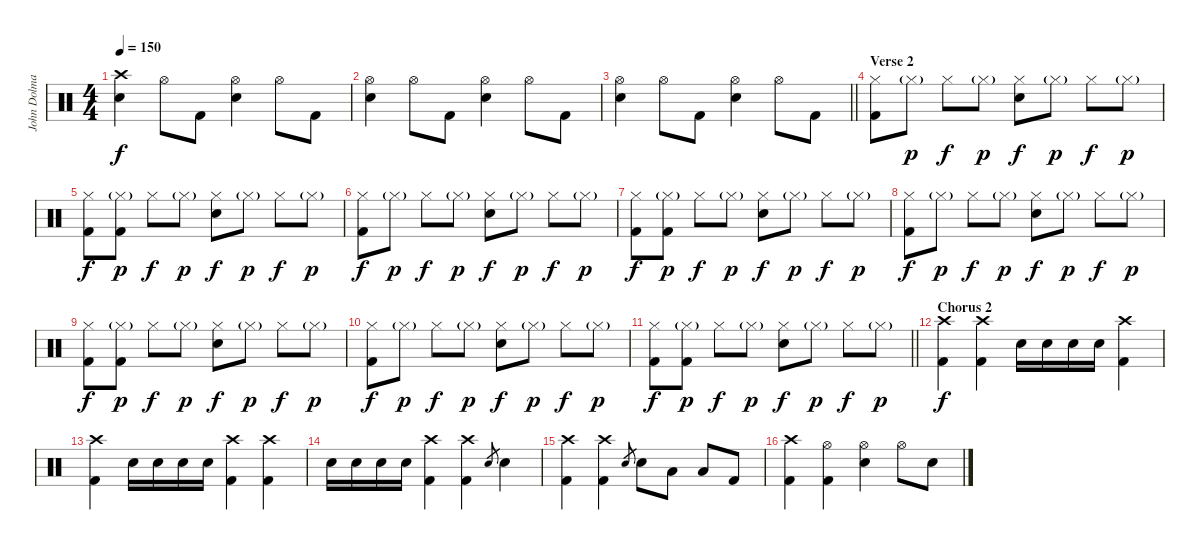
\track ("John Dolmayan(Drums)" "John Dolma") {instrument percussion}
\staff {score}
\articulation defaults
\ts (4 4)
\tempo 150
\clef neutral
\ks c
("Crash high (hit)" "Snare (hit) 2").4{dy f} "Hi-Hat (open)".8 "Kick (hit) 2".8 ("Hi-Hat (open)" "Snare (hit) 2").4 "Hi-Hat (open)".8 "Kick (hit) 2".8 |
("Hi-Hat (open)" "Snare (hit) 2").4 "Hi-Hat (open)".8 "Kick (hit) 2".8 ("Hi-Hat (open)" "Snare (hit) 2").4 "Hi-Hat (open)".8 "Kick (hit) 2".8 |
\barLineRight lightlight
("Hi-Hat (open)" "Snare (hit) 2").4 "Hi-Hat (open)".8 "Kick (hit) 2".8 ("Hi-Hat (open)" "Snare (hit) 2").4 "Hi-Hat (open)".8 "Kick (hit) 2".8 |
\section ("" "Verse 2")
("Hi-Hat (closed)" "Kick (hit) 2").8 "Hi-Hat (closed)"{g}.8{dy p} "Hi-Hat (closed)".8{dy f} "Hi-Hat (closed)"{g}.8{dy p} ("Hi-Hat (closed)" "Snare (hit) 2").8{dy f} "Hi-Hat (closed)"{g}.8{dy p} "Hi-Hat (closed)".8{dy f} "Hi-Hat (closed)"{g}.8{dy p} |
("Hi-Hat (closed)" "Kick (hit) 2").8{dy f} ("Hi-Hat (closed)"{g} "Kick (hit) 2").8{dy p} "Hi-Hat (closed)".8{dy f} "Hi-Hat (closed)"{g}.8{dy p} ("Hi-Hat (closed)" "Snare (hit) 2").8{dy f} "Hi-Hat (closed)"{g}.8{dy p} "Hi-Hat (closed)".8{dy f} "Hi-Hat (closed)"{g}.8{dy p} |
("Hi-Hat (closed)" "Kick (hit) 2").8{dy f} "Hi-Hat (closed)"{g}.8{dy p} "Hi-Hat (closed)".8{dy f} "Hi-Hat (closed)"{g}.8{dy p} ("Hi-Hat (closed)" "Snare (hit) 2").8{dy f} "Hi-Hat (closed)"{g}.8{dy p} "Hi-Hat (closed)".8{dy f} "Hi-Hat (closed)"{g}.8{dy p} |
("Hi-Hat (closed)" "Kick (hit) 2").8{dy f} ("Hi-Hat (closed)"{g} "Kick (hit) 2").8{dy p} "Hi-Hat (closed)".8{dy f} "Hi-Hat (closed)"{g}.8{dy p} ("Hi-Hat (closed)" "Snare (hit) 2").8{dy f} "Hi-Hat (closed)"{g}.8{dy p} "Hi-Hat (closed)".8{dy f} "Hi-Hat (closed)"{g}.8{dy p} |
("Hi-Hat (closed)" "Kick (hit) 2").8{dy f} "Hi-Hat (closed)"{g}.8{dy p} "Hi-Hat (closed)".8{dy f} "Hi-Hat (closed)"{g}.8{dy p} ("Hi-Hat (closed)" "Snare (hit) 2").8{dy f} "Hi-Hat (closed)"{g}.8{dy p} "Hi-Hat (closed)".8{dy f} "Hi-Hat (closed)"{g}.8{dy p} |
("Hi-Hat (closed)" "Kick (hit) 2").8{dy f} ("Hi-Hat (closed)"{g} "Kick (hit) 2").8{dy p} "Hi-Hat (closed)".8{dy f} "Hi-Hat (closed)"{g}.8{dy p} ("Hi-Hat (closed)" "Snare (hit) 2").8{dy f} "Hi-Hat (closed)"{g}.8{dy p} "Hi-Hat (closed)".8{dy f} "Hi-Hat (closed)"{g}.8{dy p} |
("Hi-Hat (closed)" "Kick (hit) 2").8{dy f} "Hi-Hat (closed)"{g}.8{dy p} "Hi-Hat (closed)".8{dy f} "Hi-Hat (closed)"{g}.8{dy p} ("Hi-Hat (closed)" "Snare (hit) 2").8{dy f} "Hi-Hat (closed)"{g}.8{dy p} "Hi-Hat (closed)".8{dy f} "Hi-Hat (closed)"{g}.8{dy p} |
\barLineRight lightlight
("Hi-Hat (closed)" "Kick (hit) 2").8{dy f} ("Hi-Hat (closed)"{g} "Kick (hit) 2").8{dy p} "Hi-Hat (closed)".8{dy f} "Hi-Hat (closed)"{g}.8{dy p} ("Hi-Hat (closed)" "Snare (hit) 2").8{dy f} "Hi-Hat (closed)"{g}.8{dy p} "Hi-Hat (closed)".8{dy f} "Hi-Hat (closed)"{g}.8{dy p} |
\section ("" "Chorus 2")
("Crash high (hit)" "Kick (hit) 2").4{dy f} ("Crash high (hit)" "Kick (hit) 2").4 "Snare (hit) 2".16 "Snare (hit) 2".16 "Snare (hit) 2".16 "Snare (hit) 2".16 ("Crash high (hit)" "Kick (hit) 2").4 |
("Crash high (hit)" "Kick (hit) 2").4 "Snare (hit) 2".16 "Snare (hit) 2".16 "Snare (hit) 2".16 "Snare (hit) 2".16 ("Crash high (hit)" "Kick (hit) 2").4 ("Crash high (hit)" "Kick (hit) 2").4 |
"Snare (hit) 2".16 "Snare (hit) 2".16 "Snare (hit) 2".16 "Snare (hit) 2".16 ("Crash high (hit)" "Kick (hit) 2").4 ("Crash high (hit)" "Kick (hit) 2").4 "Snare (hit) 2".8{gr} "Snare (hit) 2".4 |
("Crash high (hit)" "Kick (hit) 2").4 ("Crash high (hit)" "Kick (hit) 2").4 "Snare (hit) 2".8{gr} "Snare (hit) 2".8 "Low Tom (hit)".8 "Low Tom (hit)".8 "Kick (hit) 2".8 |
("Crash high (hit)" "Kick (hit) 2").4 ("Hi-Hat (open)" "Kick (hit) 2").4 ("Hi-Hat (open)" "Snare (hit) 2").4 "Hi-Hat (open)".8 "Snare (hit) 2".8
